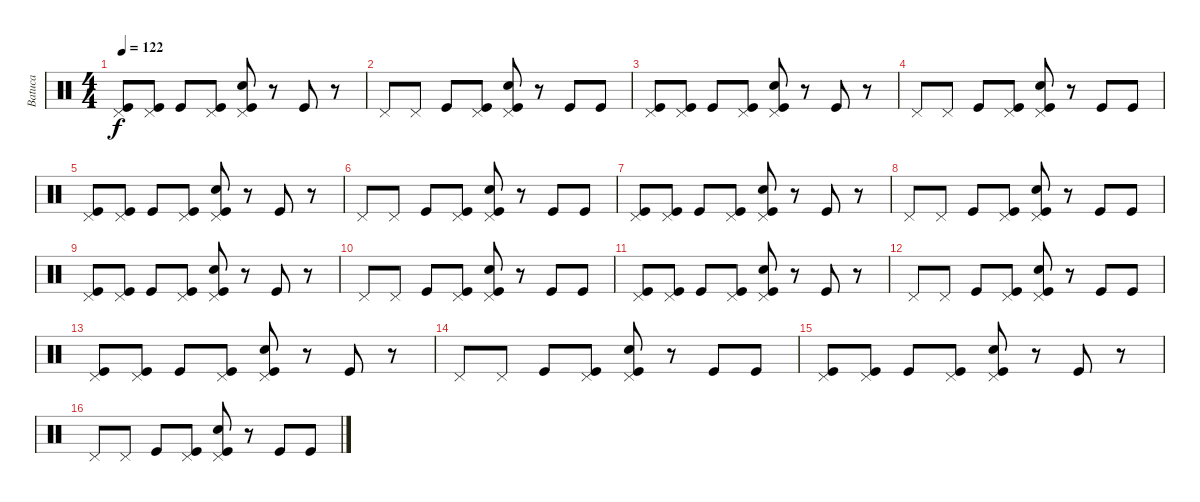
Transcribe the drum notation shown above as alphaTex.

\track ("Batuca" "Batuca") {instrument percussion}
\staff {score}
\articulation defaults
\ts (4 4)
\tempo 122
\clef neutral
\ks c
("Kick (hit)" "Pedal Hi-Hat (hit)").8{dy f} ("Kick (hit)" "Pedal Hi-Hat (hit)").8 "Kick (hit)".8 ("Kick (hit)" "Pedal Hi-Hat (hit)").8 ("Kick (hit)" "Electric Snare (hit)" "Pedal Hi-Hat (hit)").8 r.8 "Kick (hit)".8 r.8 |
"Pedal Hi-Hat (hit)".8 "Pedal Hi-Hat (hit)".8 "Kick (hit)".8 ("Kick (hit)" "Pedal Hi-Hat (hit)").8 ("Kick (hit)" "Electric Snare (hit)" "Pedal Hi-Hat (hit)").8 r.8 "Kick (hit)".8 "Kick (hit)".8 |
("Kick (hit)" "Pedal Hi-Hat (hit)").8 ("Kick (hit)" "Pedal Hi-Hat (hit)").8 "Kick (hit)".8 ("Kick (hit)" "Pedal Hi-Hat (hit)").8 ("Kick (hit)" "Electric Snare (hit)" "Pedal Hi-Hat (hit)").8 r.8 "Kick (hit)".8 r.8 |
"Pedal Hi-Hat (hit)".8 "Pedal Hi-Hat (hit)".8 "Kick (hit)".8 ("Kick (hit)" "Pedal Hi-Hat (hit)").8 ("Kick (hit)" "Electric Snare (hit)" "Pedal Hi-Hat (hit)").8 r.8 "Kick (hit)".8 "Kick (hit)".8 |
("Kick (hit)" "Pedal Hi-Hat (hit)").8 ("Kick (hit)" "Pedal Hi-Hat (hit)").8 "Kick (hit)".8 ("Kick (hit)" "Pedal Hi-Hat (hit)").8 ("Kick (hit)" "Electric Snare (hit)" "Pedal Hi-Hat (hit)").8 r.8 "Kick (hit)".8 r.8 |
"Pedal Hi-Hat (hit)".8 "Pedal Hi-Hat (hit)".8 "Kick (hit)".8 ("Kick (hit)" "Pedal Hi-Hat (hit)").8 ("Kick (hit)" "Electric Snare (hit)" "Pedal Hi-Hat (hit)").8 r.8 "Kick (hit)".8 "Kick (hit)".8 |
("Kick (hit)" "Pedal Hi-Hat (hit)").8 ("Kick (hit)" "Pedal Hi-Hat (hit)").8 "Kick (hit)".8 ("Kick (hit)" "Pedal Hi-Hat (hit)").8 ("Kick (hit)" "Electric Snare (hit)" "Pedal Hi-Hat (hit)").8 r.8 "Kick (hit)".8 r.8 |
"Pedal Hi-Hat (hit)".8 "Pedal Hi-Hat (hit)".8 "Kick (hit)".8 ("Kick (hit)" "Pedal Hi-Hat (hit)").8 ("Kick (hit)" "Electric Snare (hit)" "Pedal Hi-Hat (hit)").8 r.8 "Kick (hit)".8 "Kick (hit)".8 |
("Kick (hit)" "Pedal Hi-Hat (hit)").8 ("Kick (hit)" "Pedal Hi-Hat (hit)").8 "Kick (hit)".8 ("Kick (hit)" "Pedal Hi-Hat (hit)").8 ("Kick (hit)" "Electric Snare (hit)" "Pedal Hi-Hat (hit)").8 r.8 "Kick (hit)".8 r.8 |
"Pedal Hi-Hat (hit)".8 "Pedal Hi-Hat (hit)".8 "Kick (hit)".8 ("Kick (hit)" "Pedal Hi-Hat (hit)").8 ("Kick (hit)" "Electric Snare (hit)" "Pedal Hi-Hat (hit)").8 r.8 "Kick (hit)".8 "Kick (hit)".8 |
("Kick (hit)" "Pedal Hi-Hat (hit)").8 ("Kick (hit)" "Pedal Hi-Hat (hit)").8 "Kick (hit)".8 ("Kick (hit)" "Pedal Hi-Hat (hit)").8 ("Kick (hit)" "Electric Snare (hit)" "Pedal Hi-Hat (hit)").8 r.8 "Kick (hit)".8 r.8 |
"Pedal Hi-Hat (hit)".8 "Pedal Hi-Hat (hit)".8 "Kick (hit)".8 ("Kick (hit)" "Pedal Hi-Hat (hit)").8 ("Kick (hit)" "Electric Snare (hit)" "Pedal Hi-Hat (hit)").8 r.8 "Kick (hit)".8 "Kick (hit)".8 |
("Kick (hit)" "Pedal Hi-Hat (hit)").8 ("Kick (hit)" "Pedal Hi-Hat (hit)").8 "Kick (hit)".8 ("Kick (hit)" "Pedal Hi-Hat (hit)").8 ("Kick (hit)" "Electric Snare (hit)" "Pedal Hi-Hat (hit)").8 r.8 "Kick (hit)".8 r.8 |
"Pedal Hi-Hat (hit)".8 "Pedal Hi-Hat (hit)".8 "Kick (hit)".8 ("Kick (hit)" "Pedal Hi-Hat (hit)").8 ("Kick (hit)" "Electric Snare (hit)" "Pedal Hi-Hat (hit)").8 r.8 "Kick (hit)".8 "Kick (hit)".8 |
("Kick (hit)" "Pedal Hi-Hat (hit)").8 ("Kick (hit)" "Pedal Hi-Hat (hit)").8 "Kick (hit)".8 ("Kick (hit)" "Pedal Hi-Hat (hit)").8 ("Kick (hit)" "Electric Snare (hit)" "Pedal Hi-Hat (hit)").8 r.8 "Kick (hit)".8 r.8 |
"Pedal Hi-Hat (hit)".8 "Pedal Hi-Hat (hit)".8 "Kick (hit)".8 ("Kick (hit)" "Pedal Hi-Hat (hit)").8 ("Kick (hit)" "Electric Snare (hit)" "Pedal Hi-Hat (hit)").8 r.8 "Kick (hit)".8 "Kick (hit)".8
